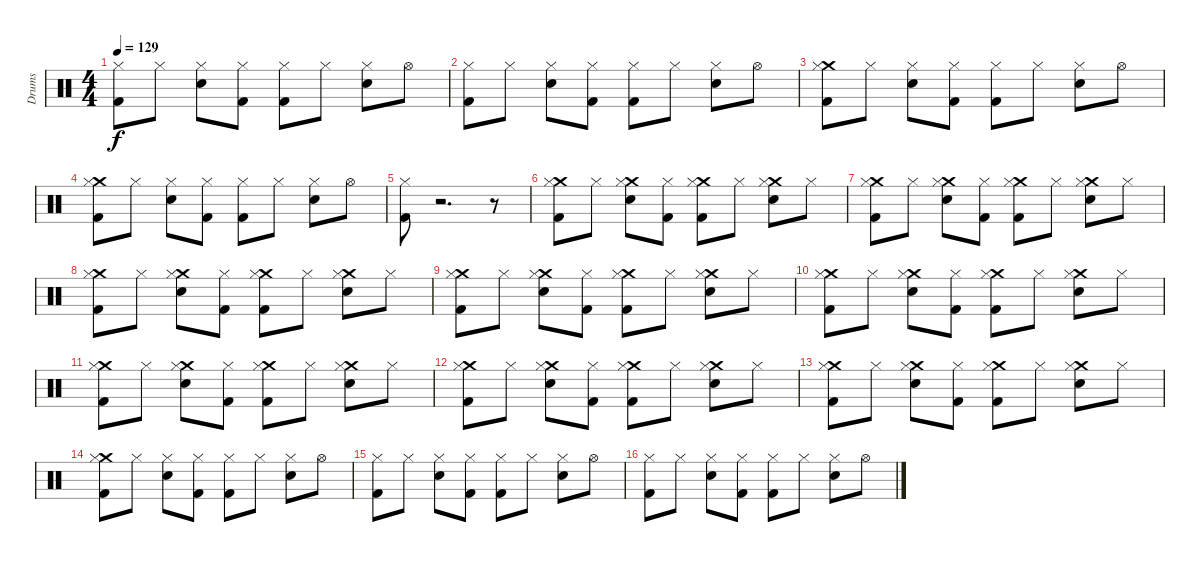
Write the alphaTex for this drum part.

\track ("Drums" "Drums") {instrument percussion}
\staff {score}
\articulation defaults
\ts (4 4)
\tempo 129
\clef neutral
\ks c
("Kick (hit) 2" "Hi-Hat (closed)").8{dy f} "Hi-Hat (closed)".8 ("Electric Snare (hit)" "Hi-Hat (closed)").8 ("Kick (hit) 2" "Hi-Hat (closed)").8 ("Kick (hit) 2" "Hi-Hat (closed)").8 "Hi-Hat (closed)".8 ("Electric Snare (hit)" "Hi-Hat (closed)").8 "Hi-Hat (open)".8 |
("Kick (hit) 2" "Hi-Hat (closed)").8 "Hi-Hat (closed)".8 ("Electric Snare (hit)" "Hi-Hat (closed)").8 ("Kick (hit) 2" "Hi-Hat (closed)").8 ("Kick (hit) 2" "Hi-Hat (closed)").8 "Hi-Hat (closed)".8 ("Electric Snare (hit)" "Hi-Hat (closed)").8 "Hi-Hat (open)".8 |
("Crash medium (hit)" "Kick (hit) 2" "Hi-Hat (closed)").8 "Hi-Hat (closed)".8 ("Electric Snare (hit)" "Hi-Hat (closed)").8 ("Kick (hit) 2" "Hi-Hat (closed)").8 ("Kick (hit) 2" "Hi-Hat (closed)").8 "Hi-Hat (closed)".8 ("Electric Snare (hit)" "Hi-Hat (closed)").8 "Hi-Hat (open)".8 |
("Crash medium (hit)" "Kick (hit) 2" "Hi-Hat (closed)").8 "Hi-Hat (closed)".8 ("Electric Snare (hit)" "Hi-Hat (closed)").8 ("Kick (hit) 2" "Hi-Hat (closed)").8 ("Kick (hit) 2" "Hi-Hat (closed)").8 "Hi-Hat (closed)".8 ("Electric Snare (hit)" "Hi-Hat (closed)").8 "Hi-Hat (open)".8 |
("Kick (hit) 2" "Hi-Hat (closed)").8 r.2{d} r.8 |
("Kick (hit) 2" "Crash medium (hit)" "Hi-Hat (closed)").8 "Hi-Hat (closed)".8 ("Crash medium (hit)" "Electric Snare (hit)" "Hi-Hat (closed)").8 ("Kick (hit) 2" "Hi-Hat (closed)").8 ("Crash medium (hit)" "Kick (hit) 2" "Hi-Hat (closed)").8 "Hi-Hat (closed)".8 ("Crash medium (hit)" "Electric Snare (hit)" "Hi-Hat (closed)").8 "Hi-Hat (closed)".8 |
("Kick (hit) 2" "Crash medium (hit)" "Hi-Hat (closed)").8 "Hi-Hat (closed)".8 ("Crash medium (hit)" "Electric Snare (hit)" "Hi-Hat (closed)").8 ("Kick (hit) 2" "Hi-Hat (closed)").8 ("Crash medium (hit)" "Kick (hit) 2" "Hi-Hat (closed)").8 "Hi-Hat (closed)".8 ("Crash medium (hit)" "Electric Snare (hit)" "Hi-Hat (closed)").8 "Hi-Hat (closed)".8 |
("Kick (hit) 2" "Crash medium (hit)" "Hi-Hat (closed)").8 "Hi-Hat (closed)".8 ("Crash medium (hit)" "Electric Snare (hit)" "Hi-Hat (closed)").8 ("Kick (hit) 2" "Hi-Hat (closed)").8 ("Crash medium (hit)" "Kick (hit) 2" "Hi-Hat (closed)").8 "Hi-Hat (closed)".8 ("Crash medium (hit)" "Electric Snare (hit)" "Hi-Hat (closed)").8 "Hi-Hat (closed)".8 |
("Kick (hit) 2" "Crash medium (hit)" "Hi-Hat (closed)").8 "Hi-Hat (closed)".8 ("Crash medium (hit)" "Electric Snare (hit)" "Hi-Hat (closed)").8 ("Kick (hit) 2" "Hi-Hat (closed)").8 ("Crash medium (hit)" "Kick (hit) 2" "Hi-Hat (closed)").8 "Hi-Hat (closed)".8 ("Crash medium (hit)" "Electric Snare (hit)" "Hi-Hat (closed)").8 "Hi-Hat (closed)".8 |
("Kick (hit) 2" "Crash medium (hit)" "Hi-Hat (closed)").8 "Hi-Hat (closed)".8 ("Crash medium (hit)" "Electric Snare (hit)" "Hi-Hat (closed)").8 ("Kick (hit) 2" "Hi-Hat (closed)").8 ("Crash medium (hit)" "Kick (hit) 2" "Hi-Hat (closed)").8 "Hi-Hat (closed)".8 ("Crash medium (hit)" "Electric Snare (hit)" "Hi-Hat (closed)").8 "Hi-Hat (closed)".8 |
("Kick (hit) 2" "Crash medium (hit)" "Hi-Hat (closed)").8 "Hi-Hat (closed)".8 ("Crash medium (hit)" "Electric Snare (hit)" "Hi-Hat (closed)").8 ("Kick (hit) 2" "Hi-Hat (closed)").8 ("Crash medium (hit)" "Kick (hit) 2" "Hi-Hat (closed)").8 "Hi-Hat (closed)".8 ("Crash medium (hit)" "Electric Snare (hit)" "Hi-Hat (closed)").8 "Hi-Hat (closed)".8 |
("Kick (hit) 2" "Crash medium (hit)" "Hi-Hat (closed)").8 "Hi-Hat (closed)".8 ("Crash medium (hit)" "Electric Snare (hit)" "Hi-Hat (closed)").8 ("Kick (hit) 2" "Hi-Hat (closed)").8 ("Crash medium (hit)" "Kick (hit) 2" "Hi-Hat (closed)").8 "Hi-Hat (closed)".8 ("Crash medium (hit)" "Electric Snare (hit)" "Hi-Hat (closed)").8 "Hi-Hat (closed)".8 |
("Kick (hit) 2" "Crash medium (hit)" "Hi-Hat (closed)").8 "Hi-Hat (closed)".8 ("Crash medium (hit)" "Electric Snare (hit)" "Hi-Hat (closed)").8 ("Kick (hit) 2" "Hi-Hat (closed)").8 ("Crash medium (hit)" "Kick (hit) 2" "Hi-Hat (closed)").8 "Hi-Hat (closed)".8 ("Crash medium (hit)" "Electric Snare (hit)" "Hi-Hat (closed)").8 "Hi-Hat (closed)".8 |
("Crash medium (hit)" "Kick (hit) 2" "Hi-Hat (closed)").8 "Hi-Hat (closed)".8 ("Electric Snare (hit)" "Hi-Hat (closed)").8 ("Kick (hit) 2" "Hi-Hat (closed)").8 ("Kick (hit) 2" "Hi-Hat (closed)").8 "Hi-Hat (closed)".8 ("Electric Snare (hit)" "Hi-Hat (closed)").8 "Hi-Hat (open)".8 |
("Kick (hit) 2" "Hi-Hat (closed)").8 "Hi-Hat (closed)".8 ("Electric Snare (hit)" "Hi-Hat (closed)").8 ("Kick (hit) 2" "Hi-Hat (closed)").8 ("Kick (hit) 2" "Hi-Hat (closed)").8 "Hi-Hat (closed)".8 ("Electric Snare (hit)" "Hi-Hat (closed)").8 "Hi-Hat (open)".8 |
("Kick (hit) 2" "Hi-Hat (closed)").8 "Hi-Hat (closed)".8 ("Electric Snare (hit)" "Hi-Hat (closed)").8 ("Kick (hit) 2" "Hi-Hat (closed)").8 ("Kick (hit) 2" "Hi-Hat (closed)").8 "Hi-Hat (closed)".8 ("Electric Snare (hit)" "Hi-Hat (closed)").8 "Hi-Hat (open)".8
